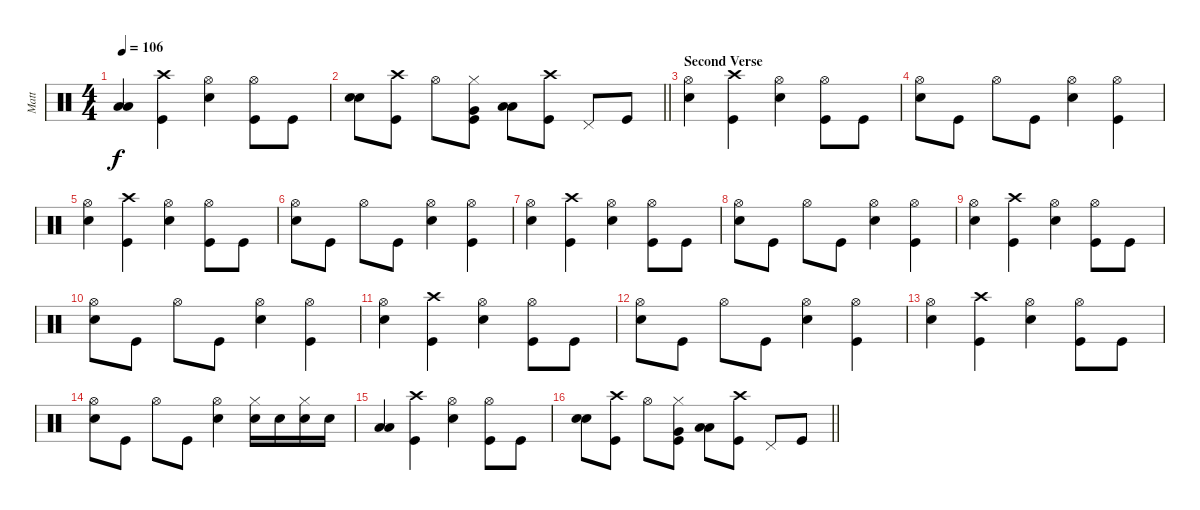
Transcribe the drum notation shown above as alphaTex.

\track ("Matt" "Matt") {instrument percussion}
\staff {score}
\articulation defaults
\ts (4 4)
\tempo 106
\clef neutral
\ks c
("Low Floor Tom (hit)" "Low Floor Tom (hit)").4{dy f} ("Crash high (hit)" "Kick (hit)").4 ("Electric Snare (hit)" "Hi-Hat (open)").4 ("Hi-Hat (open)" "Kick (hit)").8 "Kick (hit)".8 |
\barLineRight lightlight
("Electric Snare (hit)" "Electric Snare (hit)").8 ("Crash high (hit)" "Kick (hit)").8 "Hi-Hat (open)".8 ("Hi-Hat (closed)" "Very Low Tom (hit)" "Kick (hit)").8 ("Low Floor Tom (hit)" "Low Floor Tom (hit)").8 ("Crash high (hit)" "Kick (hit)").8 "Pedal Hi-Hat (hit)".8 "Kick (hit)".8 |
\section ("" "Second Verse")
("Electric Snare (hit)" "Hi-Hat (open)").4 ("Crash high (hit)" "Kick (hit)").4 ("Electric Snare (hit)" "Hi-Hat (open)").4 ("Hi-Hat (open)" "Kick (hit)").8 "Kick (hit)".8 |
("Electric Snare (hit)" "Hi-Hat (open)").8 "Kick (hit)".8 "Hi-Hat (open)".8 "Kick (hit)".8 ("Electric Snare (hit)" "Hi-Hat (open)").4 ("Hi-Hat (open)" "Kick (hit)").4 |
("Electric Snare (hit)" "Hi-Hat (open)").4 ("Crash high (hit)" "Kick (hit)").4 ("Electric Snare (hit)" "Hi-Hat (open)").4 ("Hi-Hat (open)" "Kick (hit)").8 "Kick (hit)".8 |
("Electric Snare (hit)" "Hi-Hat (open)").8 "Kick (hit)".8 "Hi-Hat (open)".8 "Kick (hit)".8 ("Electric Snare (hit)" "Hi-Hat (open)").4 ("Hi-Hat (open)" "Kick (hit)").4 |
("Electric Snare (hit)" "Hi-Hat (open)").4 ("Crash high (hit)" "Kick (hit)").4 ("Electric Snare (hit)" "Hi-Hat (open)").4 ("Hi-Hat (open)" "Kick (hit)").8 "Kick (hit)".8 |
("Electric Snare (hit)" "Hi-Hat (open)").8 "Kick (hit)".8 "Hi-Hat (open)".8 "Kick (hit)".8 ("Electric Snare (hit)" "Hi-Hat (open)").4 ("Hi-Hat (open)" "Kick (hit)").4 |
("Electric Snare (hit)" "Hi-Hat (open)").4 ("Crash high (hit)" "Kick (hit)").4 ("Electric Snare (hit)" "Hi-Hat (open)").4 ("Hi-Hat (open)" "Kick (hit)").8 "Kick (hit)".8 |
("Electric Snare (hit)" "Hi-Hat (open)").8 "Kick (hit)".8 "Hi-Hat (open)".8 "Kick (hit)".8 ("Electric Snare (hit)" "Hi-Hat (open)").4 ("Hi-Hat (open)" "Kick (hit)").4 |
("Electric Snare (hit)" "Hi-Hat (open)").4 ("Crash high (hit)" "Kick (hit)").4 ("Electric Snare (hit)" "Hi-Hat (open)").4 ("Hi-Hat (open)" "Kick (hit)").8 "Kick (hit)".8 |
("Electric Snare (hit)" "Hi-Hat (open)").8 "Kick (hit)".8 "Hi-Hat (open)".8 "Kick (hit)".8 ("Electric Snare (hit)" "Hi-Hat (open)").4 ("Hi-Hat (open)" "Kick (hit)").4 |
("Electric Snare (hit)" "Hi-Hat (open)").4 ("Crash high (hit)" "Kick (hit)").4 ("Electric Snare (hit)" "Hi-Hat (open)").4 ("Hi-Hat (open)" "Kick (hit)").8 "Kick (hit)".8 |
("Electric Snare (hit)" "Hi-Hat (open)").8 "Kick (hit)".8 "Hi-Hat (open)".8 "Kick (hit)".8 ("Electric Snare (hit)" "Hi-Hat (open)").4 ("Electric Snare (hit)" "Hi-Hat (closed)").16 "Electric Snare (hit)".16 ("Electric Snare (hit)" "Hi-Hat (closed)").16 "Electric Snare (hit)".16 |
("Low Floor Tom (hit)" "Low Floor Tom (hit)").4 ("Crash high (hit)" "Kick (hit)").4 ("Electric Snare (hit)" "Hi-Hat (open)").4 ("Hi-Hat (open)" "Kick (hit)").8 "Kick (hit)".8 |
\barLineRight lightlight
("Electric Snare (hit)" "Electric Snare (hit)").8 ("Crash high (hit)" "Kick (hit)").8 "Hi-Hat (open)".8 ("Hi-Hat (closed)" "Very Low Tom (hit)" "Kick (hit)").8 ("Low Floor Tom (hit)" "Low Floor Tom (hit)").8 ("Crash high (hit)" "Kick (hit)").8 "Pedal Hi-Hat (hit)".8 "Kick (hit)".8
